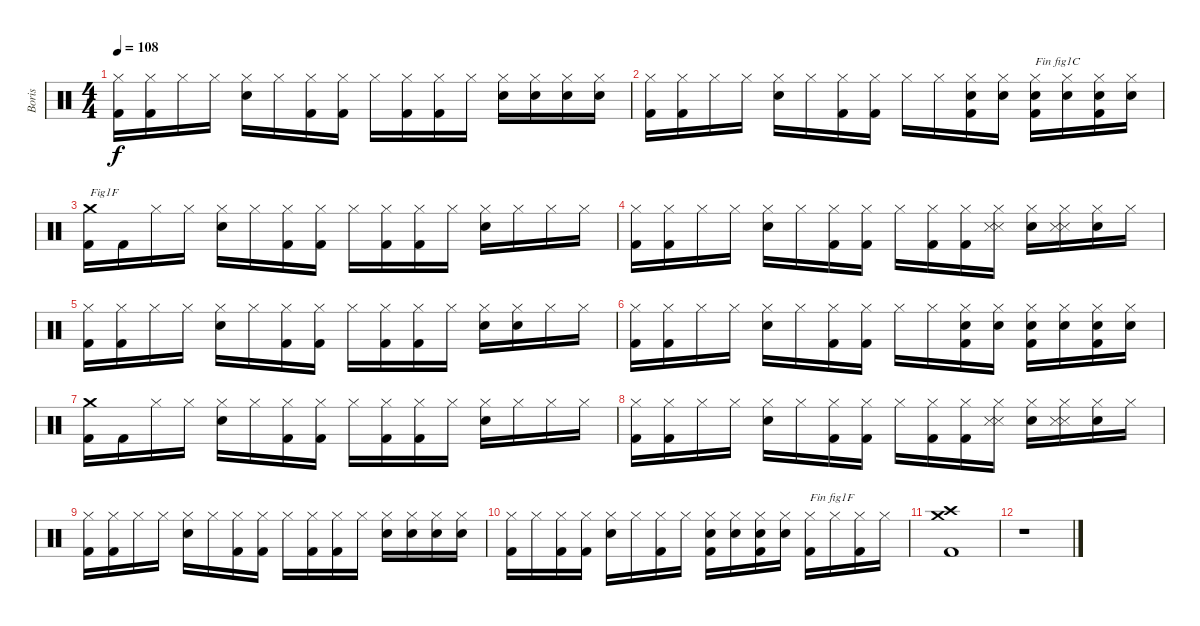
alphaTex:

\track ("Boris" "Boris") {instrument percussion}
\staff {score}
\articulation defaults
\ts (4 4)
\tempo 108
\clef neutral
\ks c
("Kick (hit) 2" "Hi-Hat (closed)").16{dy f} ("Kick (hit) 2" "Hi-Hat (closed)").16 "Hi-Hat (closed)".16 "Hi-Hat (closed)".16 ("Electric Snare (hit)" "Hi-Hat (closed)").16 "Hi-Hat (closed)".16 ("Kick (hit) 2" "Hi-Hat (closed)").16 ("Kick (hit) 2" "Hi-Hat (closed)").16 "Hi-Hat (closed)".16 ("Kick (hit) 2" "Hi-Hat (closed)").16 ("Kick (hit) 2" "Hi-Hat (closed)").16 "Hi-Hat (closed)".16 ("Electric Snare (hit)" "Hi-Hat (closed)").16 ("Electric Snare (hit)" "Hi-Hat (closed)").16 ("Electric Snare (hit)" "Hi-Hat (closed)").16 ("Electric Snare (hit)" "Hi-Hat (closed)").16 |
("Kick (hit) 2" "Hi-Hat (closed)").16 ("Kick (hit) 2" "Hi-Hat (closed)").16 "Hi-Hat (closed)".16 "Hi-Hat (closed)".16 ("Electric Snare (hit)" "Hi-Hat (closed)").16 "Hi-Hat (closed)".16 ("Kick (hit) 2" "Hi-Hat (closed)").16 ("Kick (hit) 2" "Hi-Hat (closed)").16 "Hi-Hat (closed)".16 "Hi-Hat (closed)".16 ("Kick (hit) 2" "Electric Snare (hit)" "Hi-Hat (closed)").16 ("Electric Snare (hit)" "Hi-Hat (closed)").16 ("Kick (hit) 2" "Electric Snare (hit)" "Hi-Hat (closed)").16{txt "Fin fig1C"} ("Electric Snare (hit)" "Hi-Hat (closed)").16 ("Kick (hit) 2" "Electric Snare (hit)" "Hi-Hat (closed)").16 ("Electric Snare (hit)" "Hi-Hat (closed)").16 |
("Kick (hit) 2" "Crash medium (hit)").16{txt "Fig1F"} "Kick (hit) 2".16 "Hi-Hat (closed)".16 "Hi-Hat (closed)".16 ("Electric Snare (hit)" "Hi-Hat (closed)").16 "Hi-Hat (closed)".16 ("Kick (hit) 2" "Hi-Hat (closed)").16 ("Kick (hit) 2" "Hi-Hat (closed)").16 "Hi-Hat (closed)".16 ("Kick (hit) 2" "Hi-Hat (closed)").16 ("Kick (hit) 2" "Hi-Hat (closed)").16 "Hi-Hat (closed)".16 ("Electric Snare (hit)" "Hi-Hat (closed)").16 "Hi-Hat (closed)".16 "Hi-Hat (closed)".16 "Hi-Hat (closed)".16 |
("Kick (hit) 2" "Hi-Hat (closed)").16 ("Kick (hit) 2" "Hi-Hat (closed)").16 "Hi-Hat (closed)".16 "Hi-Hat (closed)".16 ("Electric Snare (hit)" "Hi-Hat (closed)").16 "Hi-Hat (closed)".16 ("Kick (hit) 2" "Hi-Hat (closed)").16 ("Kick (hit) 2" "Hi-Hat (closed)").16 "Hi-Hat (closed)".16 ("Kick (hit) 2" "Hi-Hat (closed)").16 ("Kick (hit) 2" "Hi-Hat (closed)").16 ("Metronome (hit)" "Snare (side stick) 3" "Hi-Hat (closed)").16 ("Electric Snare (hit)" "Hi-Hat (closed)").16 ("Metronome (hit)" "Snare (side stick) 3" "Hi-Hat (closed)").16 ("Electric Snare (hit)" "Hi-Hat (closed)").16 "Hi-Hat (closed)".16 |
("Kick (hit) 2" "Hi-Hat (closed)").16 ("Kick (hit) 2" "Hi-Hat (closed)").16 "Hi-Hat (closed)".16 "Hi-Hat (closed)".16 ("Electric Snare (hit)" "Hi-Hat (closed)").16 "Hi-Hat (closed)".16 ("Kick (hit) 2" "Hi-Hat (closed)").16 ("Kick (hit) 2" "Hi-Hat (closed)").16 "Hi-Hat (closed)".16 ("Kick (hit) 2" "Hi-Hat (closed)").16 ("Kick (hit) 2" "Hi-Hat (closed)").16 "Hi-Hat (closed)".16 ("Electric Snare (hit)" "Hi-Hat (closed)").16 ("Electric Snare (hit)" "Hi-Hat (closed)").16 "Hi-Hat (closed)".16 "Hi-Hat (closed)".16 |
("Kick (hit) 2" "Hi-Hat (closed)").16 ("Kick (hit) 2" "Hi-Hat (closed)").16 "Hi-Hat (closed)".16 "Hi-Hat (closed)".16 ("Electric Snare (hit)" "Hi-Hat (closed)").16 "Hi-Hat (closed)".16 ("Kick (hit) 2" "Hi-Hat (closed)").16 ("Kick (hit) 2" "Hi-Hat (closed)").16 "Hi-Hat (closed)".16 "Hi-Hat (closed)".16 ("Kick (hit) 2" "Electric Snare (hit)" "Hi-Hat (closed)").16 ("Electric Snare (hit)" "Hi-Hat (closed)").16 ("Kick (hit) 2" "Electric Snare (hit)" "Hi-Hat (closed)").16 ("Electric Snare (hit)" "Hi-Hat (closed)").16 ("Kick (hit) 2" "Electric Snare (hit)" "Hi-Hat (closed)").16 ("Electric Snare (hit)" "Hi-Hat (closed)").16 |
("Kick (hit) 2" "Crash medium (hit)").16 "Kick (hit) 2".16 "Hi-Hat (closed)".16 "Hi-Hat (closed)".16 ("Electric Snare (hit)" "Hi-Hat (closed)").16 "Hi-Hat (closed)".16 ("Kick (hit) 2" "Hi-Hat (closed)").16 ("Kick (hit) 2" "Hi-Hat (closed)").16 "Hi-Hat (closed)".16 ("Kick (hit) 2" "Hi-Hat (closed)").16 ("Kick (hit) 2" "Hi-Hat (closed)").16 "Hi-Hat (closed)".16 ("Electric Snare (hit)" "Hi-Hat (closed)").16 "Hi-Hat (closed)".16 "Hi-Hat (closed)".16 "Hi-Hat (closed)".16 |
("Kick (hit) 2" "Hi-Hat (closed)").16 ("Kick (hit) 2" "Hi-Hat (closed)").16 "Hi-Hat (closed)".16 "Hi-Hat (closed)".16 ("Electric Snare (hit)" "Hi-Hat (closed)").16 "Hi-Hat (closed)".16 ("Kick (hit) 2" "Hi-Hat (closed)").16 ("Kick (hit) 2" "Hi-Hat (closed)").16 "Hi-Hat (closed)".16 ("Kick (hit) 2" "Hi-Hat (closed)").16 ("Kick (hit) 2" "Hi-Hat (closed)").16 ("Metronome (hit)" "Snare (side stick) 3" "Hi-Hat (closed)").16 ("Electric Snare (hit)" "Hi-Hat (closed)").16 ("Metronome (hit)" "Snare (side stick) 3" "Hi-Hat (closed)").16 ("Electric Snare (hit)" "Hi-Hat (closed)").16 "Hi-Hat (closed)".16 |
("Kick (hit) 2" "Hi-Hat (closed)").16 ("Kick (hit) 2" "Hi-Hat (closed)").16 "Hi-Hat (closed)".16 "Hi-Hat (closed)".16 ("Electric Snare (hit)" "Hi-Hat (closed)").16 "Hi-Hat (closed)".16 ("Kick (hit) 2" "Hi-Hat (closed)").16 ("Kick (hit) 2" "Hi-Hat (closed)").16 "Hi-Hat (closed)".16 ("Kick (hit) 2" "Hi-Hat (closed)").16 ("Kick (hit) 2" "Hi-Hat (closed)").16 "Hi-Hat (closed)".16 ("Electric Snare (hit)" "Hi-Hat (closed)").16 ("Electric Snare (hit)" "Hi-Hat (closed)").16 ("Electric Snare (hit)" "Hi-Hat (closed)").16 ("Electric Snare (hit)" "Hi-Hat (closed)").16 |
("Kick (hit) 2" "Hi-Hat (closed)").16 "Hi-Hat (closed)".16 ("Kick (hit) 2" "Hi-Hat (closed)").16 ("Kick (hit) 2" "Hi-Hat (closed)").16 ("Electric Snare (hit)" "Hi-Hat (closed)").16 "Hi-Hat (closed)".16 ("Kick (hit) 2" "Hi-Hat (closed)").16 "Hi-Hat (closed)".16 ("Kick (hit) 2" "Electric Snare (hit)" "Hi-Hat (closed)").16 ("Electric Snare (hit)" "Hi-Hat (closed)").16 ("Kick (hit) 2" "Electric Snare (hit)" "Hi-Hat (closed)").16 ("Electric Snare (hit)" "Hi-Hat (closed)").16 ("Kick (hit) 2" "Hi-Hat (closed)").16{txt "Fin fig1F"} "Hi-Hat (closed)".16 ("Kick (hit) 2" "Hi-Hat (closed)").16 "Hi-Hat (closed)".16 |
("Kick (hit) 2" "Crash medium (hit)" "Crash high (hit)").1 |
r.1
